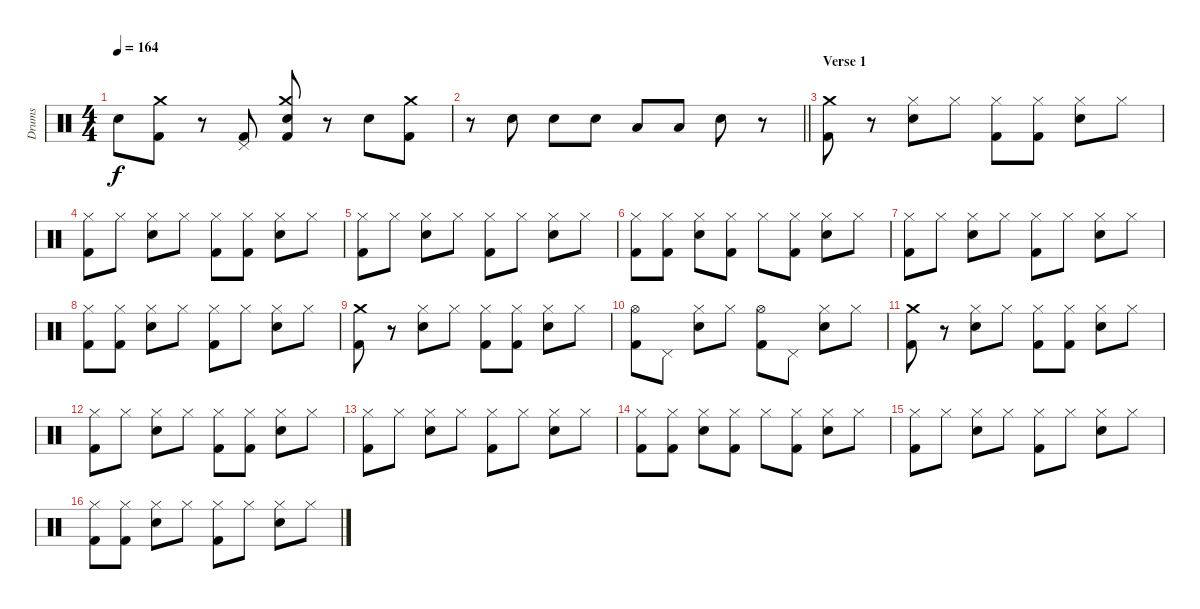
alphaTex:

\track ("Drums" "Drums") {instrument percussion}
\staff {score}
\articulation defaults
\ts (4 4)
\tempo 164
\clef neutral
\ks c "Snare (hit) 2".8{dy f}
("Crash medium (hit)" "Kick (hit) 2").8 r.8 ("Pedal Hi-Hat (hit)" "Kick (hit) 2").8 ("Crash medium (hit)" "Snare (hit) 2" "Kick (hit) 2").8 r.8 "Snare (hit) 2".8 ("Crash medium (hit)" "Kick (hit) 2").8 |
\barLineRight lightlight
r.8 "Snare (hit) 2".8 "Snare (hit) 2".8 "Snare (hit) 2".8 "Low Tom (hit)".8 "Low Tom (hit)".8 "Snare (hit) 2".8 r.8 |
\section ("" "Verse 1")
("Crash medium (hit)" "Kick (hit) 2").8 r.8 ("Hi-Hat (closed)" "Snare (hit) 2").8 "Hi-Hat (closed)".8 ("Hi-Hat (closed)" "Kick (hit) 2").8 ("Hi-Hat (closed)" "Kick (hit) 2").8 ("Hi-Hat (closed)" "Snare (hit) 2").8 "Hi-Hat (closed)".8 |
("Hi-Hat (closed)" "Kick (hit) 2").8 "Hi-Hat (closed)".8 ("Hi-Hat (closed)" "Snare (hit) 2").8 "Hi-Hat (closed)".8 ("Hi-Hat (closed)" "Kick (hit) 2").8 ("Hi-Hat (closed)" "Kick (hit) 2").8 ("Hi-Hat (closed)" "Snare (hit) 2").8 "Hi-Hat (closed)".8 |
("Hi-Hat (closed)" "Kick (hit) 2").8 "Hi-Hat (closed)".8 ("Hi-Hat (closed)" "Snare (hit) 2").8 "Hi-Hat (closed)".8 ("Hi-Hat (closed)" "Kick (hit) 2").8 "Hi-Hat (closed)".8 ("Hi-Hat (closed)" "Snare (hit) 2").8 "Hi-Hat (closed)".8 |
("Hi-Hat (closed)" "Kick (hit) 2").8 ("Hi-Hat (closed)" "Kick (hit) 2").8 ("Hi-Hat (closed)" "Snare (hit) 2").8 ("Hi-Hat (closed)" "Kick (hit) 2").8 "Hi-Hat (closed)".8 ("Hi-Hat (closed)" "Kick (hit) 2").8 ("Hi-Hat (closed)" "Snare (hit) 2").8 "Hi-Hat (closed)".8 |
("Hi-Hat (closed)" "Kick (hit) 2").8 "Hi-Hat (closed)".8 ("Hi-Hat (closed)" "Snare (hit) 2").8 "Hi-Hat (closed)".8 ("Hi-Hat (closed)" "Kick (hit) 2").8 "Hi-Hat (closed)".8 ("Hi-Hat (closed)" "Snare (hit) 2").8 "Hi-Hat (closed)".8 |
("Hi-Hat (closed)" "Kick (hit) 2").8 ("Hi-Hat (closed)" "Kick (hit) 2").8 ("Hi-Hat (closed)" "Snare (hit) 2").8 "Hi-Hat (closed)".8 ("Hi-Hat (closed)" "Kick (hit) 2").8 "Hi-Hat (closed)".8 ("Hi-Hat (closed)" "Snare (hit) 2").8 "Hi-Hat (closed)".8 |
("Crash medium (hit)" "Kick (hit) 2").8 r.8 ("Hi-Hat (closed)" "Snare (hit) 2").8 "Hi-Hat (closed)".8 ("Hi-Hat (closed)" "Kick (hit) 2").8 ("Hi-Hat (closed)" "Kick (hit) 2").8 ("Hi-Hat (closed)" "Snare (hit) 2").8 "Hi-Hat (closed)".8 |
("Hi-Hat (open)" "Kick (hit) 2").8 "Pedal Hi-Hat (hit)".8 ("Hi-Hat (closed)" "Snare (hit) 2").8 "Hi-Hat (closed)".8 ("Hi-Hat (open)" "Kick (hit) 2").8 "Pedal Hi-Hat (hit)".8 ("Hi-Hat (closed)" "Snare (hit) 2").8 "Hi-Hat (closed)".8 |
("Crash medium (hit)" "Kick (hit) 2").8 r.8 ("Hi-Hat (closed)" "Snare (hit) 2").8 "Hi-Hat (closed)".8 ("Hi-Hat (closed)" "Kick (hit) 2").8 ("Hi-Hat (closed)" "Kick (hit) 2").8 ("Hi-Hat (closed)" "Snare (hit) 2").8 "Hi-Hat (closed)".8 |
("Hi-Hat (closed)" "Kick (hit) 2").8 "Hi-Hat (closed)".8 ("Hi-Hat (closed)" "Snare (hit) 2").8 "Hi-Hat (closed)".8 ("Hi-Hat (closed)" "Kick (hit) 2").8 ("Hi-Hat (closed)" "Kick (hit) 2").8 ("Hi-Hat (closed)" "Snare (hit) 2").8 "Hi-Hat (closed)".8 |
("Hi-Hat (closed)" "Kick (hit) 2").8 "Hi-Hat (closed)".8 ("Hi-Hat (closed)" "Snare (hit) 2").8 "Hi-Hat (closed)".8 ("Hi-Hat (closed)" "Kick (hit) 2").8 "Hi-Hat (closed)".8 ("Hi-Hat (closed)" "Snare (hit) 2").8 "Hi-Hat (closed)".8 |
("Hi-Hat (closed)" "Kick (hit) 2").8 ("Hi-Hat (closed)" "Kick (hit) 2").8 ("Hi-Hat (closed)" "Snare (hit) 2").8 ("Hi-Hat (closed)" "Kick (hit) 2").8 "Hi-Hat (closed)".8 ("Hi-Hat (closed)" "Kick (hit) 2").8 ("Hi-Hat (closed)" "Snare (hit) 2").8 "Hi-Hat (closed)".8 |
("Hi-Hat (closed)" "Kick (hit) 2").8 "Hi-Hat (closed)".8 ("Hi-Hat (closed)" "Snare (hit) 2").8 "Hi-Hat (closed)".8 ("Hi-Hat (closed)" "Kick (hit) 2").8 "Hi-Hat (closed)".8 ("Hi-Hat (closed)" "Snare (hit) 2").8 "Hi-Hat (closed)".8 |
("Hi-Hat (closed)" "Kick (hit) 2").8 ("Hi-Hat (closed)" "Kick (hit) 2").8 ("Hi-Hat (closed)" "Snare (hit) 2").8 "Hi-Hat (closed)".8 ("Hi-Hat (closed)" "Kick (hit) 2").8 "Hi-Hat (closed)".8 ("Hi-Hat (closed)" "Snare (hit) 2").8 "Hi-Hat (closed)".8
